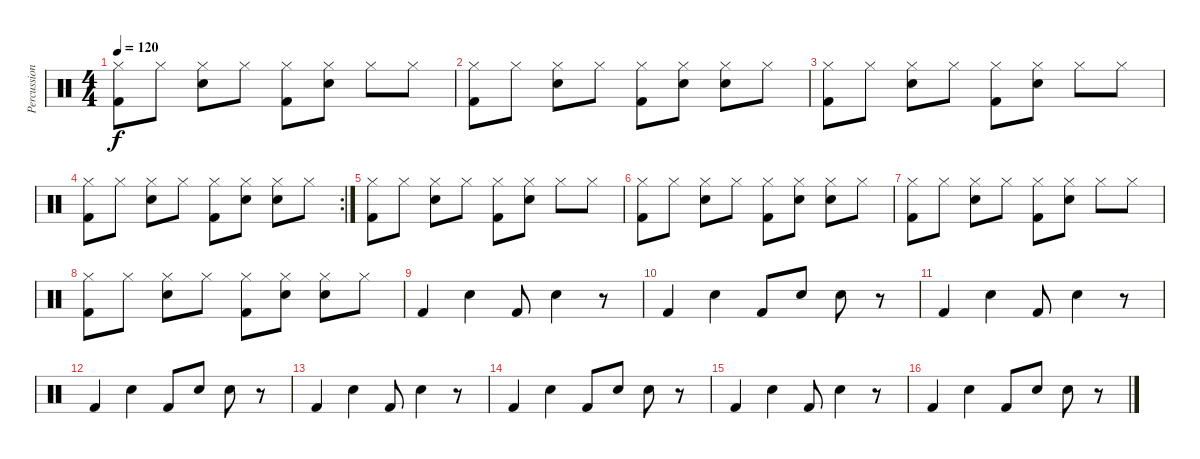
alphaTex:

\track ("Percussion" "Percussion") {instrument percussion}
\staff {score}
\articulation defaults
\ts (4 4)
\tempo 120
\clef neutral
\ks c
("Hi-Hat (closed)" "Kick (hit) 2").8{dy f} "Hi-Hat (closed)".8 ("Hi-Hat (closed)" "Snare (hit) 2").8 "Hi-Hat (closed)".8 ("Hi-Hat (closed)" "Kick (hit) 2").8 ("Hi-Hat (closed)" "Snare (hit) 2").8 "Hi-Hat (closed)".8 "Hi-Hat (closed)".8 |
("Hi-Hat (closed)" "Kick (hit) 2").8 "Hi-Hat (closed)".8 ("Hi-Hat (closed)" "Snare (hit) 2").8 "Hi-Hat (closed)".8 ("Hi-Hat (closed)" "Kick (hit) 2").8 ("Hi-Hat (closed)" "Snare (hit) 2").8 ("Hi-Hat (closed)" "Snare (hit) 2").8 "Hi-Hat (closed)".8 |
("Hi-Hat (closed)" "Kick (hit) 2").8 "Hi-Hat (closed)".8 ("Hi-Hat (closed)" "Snare (hit) 2").8 "Hi-Hat (closed)".8 ("Hi-Hat (closed)" "Kick (hit) 2").8 ("Hi-Hat (closed)" "Snare (hit) 2").8 "Hi-Hat (closed)".8 "Hi-Hat (closed)".8 |
\rc 2
("Hi-Hat (closed)" "Kick (hit) 2").8 "Hi-Hat (closed)".8 ("Hi-Hat (closed)" "Snare (hit) 2").8 "Hi-Hat (closed)".8 ("Hi-Hat (closed)" "Kick (hit) 2").8 ("Hi-Hat (closed)" "Snare (hit) 2").8 ("Hi-Hat (closed)" "Snare (hit) 2").8 "Hi-Hat (closed)".8 |
("Hi-Hat (closed)" "Kick (hit) 2").8 "Hi-Hat (closed)".8 ("Hi-Hat (closed)" "Snare (hit) 2").8 "Hi-Hat (closed)".8 ("Hi-Hat (closed)" "Kick (hit) 2").8 ("Hi-Hat (closed)" "Snare (hit) 2").8 "Hi-Hat (closed)".8 "Hi-Hat (closed)".8 |
("Hi-Hat (closed)" "Kick (hit) 2").8 "Hi-Hat (closed)".8 ("Hi-Hat (closed)" "Snare (hit) 2").8 "Hi-Hat (closed)".8 ("Hi-Hat (closed)" "Kick (hit) 2").8 ("Hi-Hat (closed)" "Snare (hit) 2").8 ("Hi-Hat (closed)" "Snare (hit) 2").8 "Hi-Hat (closed)".8 |
("Hi-Hat (closed)" "Kick (hit) 2").8 "Hi-Hat (closed)".8 ("Hi-Hat (closed)" "Snare (hit) 2").8 "Hi-Hat (closed)".8 ("Hi-Hat (closed)" "Kick (hit) 2").8 ("Hi-Hat (closed)" "Snare (hit) 2").8 "Hi-Hat (closed)".8 "Hi-Hat (closed)".8 |
("Hi-Hat (closed)" "Kick (hit) 2").8 "Hi-Hat (closed)".8 ("Hi-Hat (closed)" "Snare (hit) 2").8 "Hi-Hat (closed)".8 ("Hi-Hat (closed)" "Kick (hit) 2").8 ("Hi-Hat (closed)" "Snare (hit) 2").8 ("Hi-Hat (closed)" "Snare (hit) 2").8 "Hi-Hat (closed)".8 |
"Kick (hit) 2".4 "Snare (hit) 2".4 "Kick (hit) 2".8 "Snare (hit) 2".4 r.8 |
"Kick (hit) 2".4 "Snare (hit) 2".4 "Kick (hit) 2".8 "Snare (hit) 2".8 "Snare (hit) 2".8 r.8 |
"Kick (hit) 2".4 "Snare (hit) 2".4 "Kick (hit) 2".8 "Snare (hit) 2".4 r.8 |
"Kick (hit) 2".4 "Snare (hit) 2".4 "Kick (hit) 2".8 "Snare (hit) 2".8 "Snare (hit) 2".8 r.8 |
"Kick (hit) 2".4 "Snare (hit) 2".4 "Kick (hit) 2".8 "Snare (hit) 2".4 r.8 |
"Kick (hit) 2".4 "Snare (hit) 2".4 "Kick (hit) 2".8 "Snare (hit) 2".8 "Snare (hit) 2".8 r.8 |
"Kick (hit) 2".4 "Snare (hit) 2".4 "Kick (hit) 2".8 "Snare (hit) 2".4 r.8 |
"Kick (hit) 2".4 "Snare (hit) 2".4 "Kick (hit) 2".8 "Snare (hit) 2".8 "Snare (hit) 2".8 r.8
